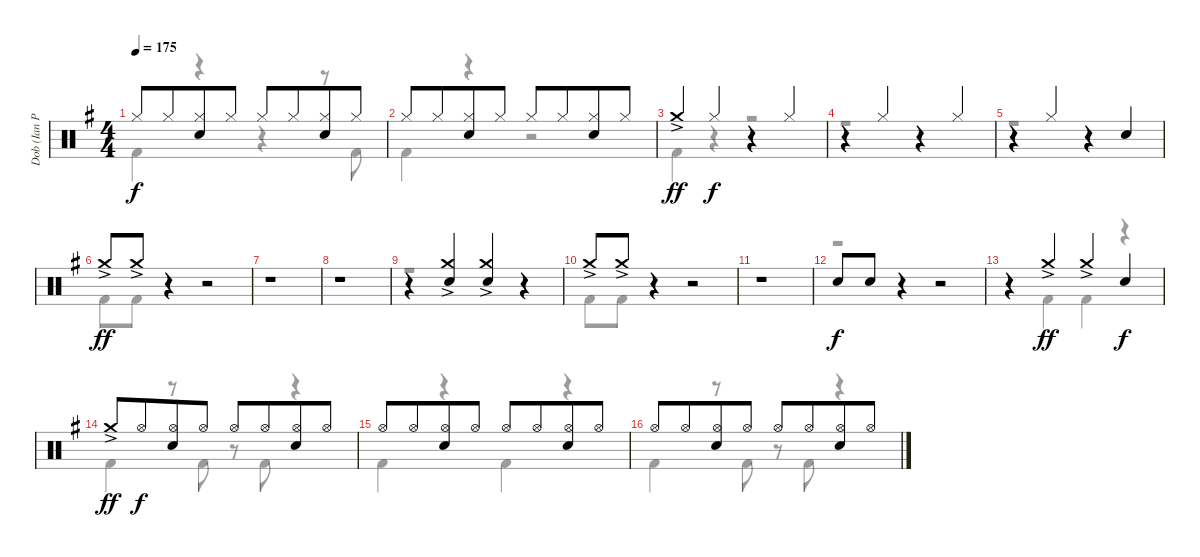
\track ("Dob (Ian Paice)" "Dob (Ian P") {instrument percussion}
\staff {score}
\articulation defaults
\voice
\ts (4 4)
\tempo 175
\clef neutral
\ks g "Hi-Hat (closed)".8{dy f} "Hi-Hat (closed)".8{beam merge}
("Hi-Hat (closed)" "Electric Snare (hit)").8 "Hi-Hat (closed)".8 "Hi-Hat (closed)".8 "Hi-Hat (closed)".8{beam merge} ("Hi-Hat (closed)" "Electric Snare (hit)").8 "Hi-Hat (closed)".8 |
"Hi-Hat (closed)".8 "Hi-Hat (closed)".8{beam merge} ("Hi-Hat (closed)" "Electric Snare (hit)").8 "Hi-Hat (closed)".8 "Hi-Hat (closed)".8 "Hi-Hat (closed)".8{beam merge} ("Hi-Hat (closed)" "Electric Snare (hit)").8 "Hi-Hat (closed)".8 |
"Crash medium (hit)"{ac}.4{dy ff} "Hi-Hat (closed)".4{dy f} r.4 "Hi-Hat (closed)".4 |
r.4 "Hi-Hat (closed)".4 r.4 "Hi-Hat (closed)".4 |
r.4 "Hi-Hat (closed)".4 r.4 "Electric Snare (hit)".4 |
"Crash medium (hit)"{ac}.8{dy ff} "Crash medium (hit)"{ac}.8 r.4 r.2 |
r.1 |
r.1 |
r.4 ("Crash medium (hit)"{ac} "Electric Snare (hit)").4 ("Crash medium (hit)"{ac} "Electric Snare (hit)").4 r.4 |
"Crash medium (hit)"{ac}.8 "Crash medium (hit)"{ac}.8 r.4 r.2 |
r.1 |
"Electric Snare (hit)".8{dy f} "Electric Snare (hit)".8 r.4 r.2 |
r.4 "Crash medium (hit)"{ac}.4{dy ff} "Crash medium (hit)"{ac}.4 "Electric Snare (hit)".4{dy f} |
"Crash medium (hit)"{ac}.8{dy ff} "Hi-Hat (open)".8{dy f beam merge} ("Hi-Hat (open)" "Electric Snare (hit)").8 "Hi-Hat (open)".8 "Hi-Hat (open)".8 "Hi-Hat (open)".8{beam merge} ("Hi-Hat (open)" "Electric Snare (hit)").8 "Hi-Hat (open)".8 |
"Hi-Hat (open)".8 "Hi-Hat (open)".8{beam merge} ("Hi-Hat (open)" "Electric Snare (hit)").8 "Hi-Hat (open)".8 "Hi-Hat (open)".8 "Hi-Hat (open)".8{beam merge} ("Hi-Hat (open)" "Electric Snare (hit)").8 "Hi-Hat (open)".8 |
"Hi-Hat (open)".8 "Hi-Hat (open)".8{beam merge} ("Hi-Hat (open)" "Electric Snare (hit)").8 "Hi-Hat (open)".8 "Hi-Hat (open)".8 "Hi-Hat (open)".8{beam merge} ("Hi-Hat (open)" "Electric Snare (hit)").8 "Hi-Hat (open)".8
\voice
\clef neutral
\ottava regular
\simile none
\ks g "Kick (hit) 2".4{dy f}
r.4 r.4 r.8 "Kick (hit) 2".8 |
"Kick (hit) 2".4 r.4 r.2 |
"Kick (hit) 2".4 r.4 r.2 |
r.1 |
r.1 |
"Kick (hit) 2".8 "Kick (hit) 2".8 r.4 r.2 |
r.1 |
r.1 |
r.1 |
"Kick (hit) 2".8 "Kick (hit) 2".8 r.4 r.2 |
r.1 |
r.1 |
r.4 "Kick (hit) 2".4 "Kick (hit) 2".4 r.4 |
"Kick (hit) 2".4 r.8 "Kick (hit) 2".8 r.8 "Kick (hit) 2".8 r.4 |
"Kick (hit) 2".4 r.4 "Kick (hit) 2".4 r.4 |
"Kick (hit) 2".4 r.8 "Kick (hit) 2".8 r.8 "Kick (hit) 2".8 r.4
